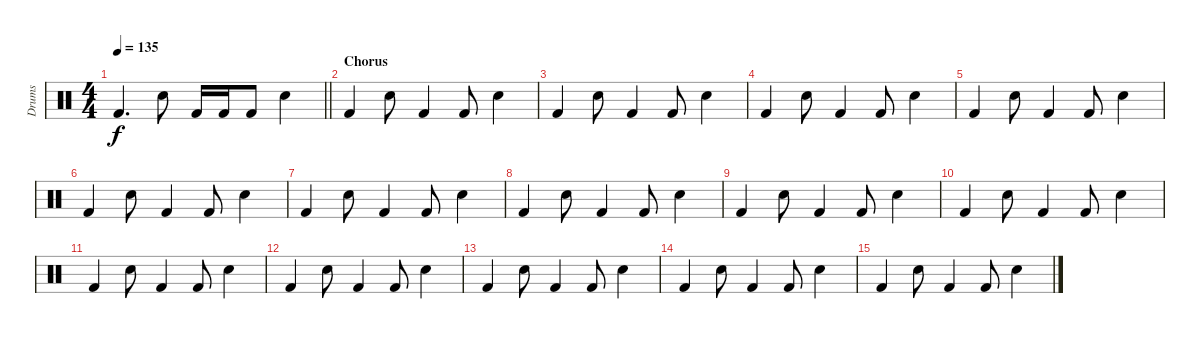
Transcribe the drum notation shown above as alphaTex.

\track ("Drums" "Drums") {instrument percussion}
\staff {score}
\articulation defaults
\ts (4 4)
\tempo 135
\clef neutral
\barLineRight lightlight
\ks c "Kick (hit) 2".4{d dy f} "Electric Snare (hit)".8 "Kick (hit) 2".16 "Kick (hit) 2".16 "Kick (hit) 2".8 "Electric Snare (hit)".4
|
\section ("" "Chorus")
"Kick (hit) 2".4 "Electric Snare (hit)".8 "Kick (hit) 2".4 "Kick (hit) 2".8 "Electric Snare (hit)".4 |
"Kick (hit) 2".4 "Electric Snare (hit)".8 "Kick (hit) 2".4 "Kick (hit) 2".8 "Electric Snare (hit)".4 |
"Kick (hit) 2".4 "Electric Snare (hit)".8 "Kick (hit) 2".4 "Kick (hit) 2".8 "Electric Snare (hit)".4 |
"Kick (hit) 2".4 "Electric Snare (hit)".8 "Kick (hit) 2".4 "Kick (hit) 2".8 "Electric Snare (hit)".4 |
"Kick (hit) 2".4 "Electric Snare (hit)".8 "Kick (hit) 2".4 "Kick (hit) 2".8 "Electric Snare (hit)".4 |
"Kick (hit) 2".4 "Electric Snare (hit)".8 "Kick (hit) 2".4 "Kick (hit) 2".8 "Electric Snare (hit)".4 |
"Kick (hit) 2".4 "Electric Snare (hit)".8 "Kick (hit) 2".4 "Kick (hit) 2".8 "Electric Snare (hit)".4 |
"Kick (hit) 2".4 "Electric Snare (hit)".8 "Kick (hit) 2".4 "Kick (hit) 2".8 "Electric Snare (hit)".4 |
"Kick (hit) 2".4 "Electric Snare (hit)".8 "Kick (hit) 2".4 "Kick (hit) 2".8 "Electric Snare (hit)".4 |
"Kick (hit) 2".4 "Electric Snare (hit)".8 "Kick (hit) 2".4 "Kick (hit) 2".8 "Electric Snare (hit)".4 |
"Kick (hit) 2".4 "Electric Snare (hit)".8 "Kick (hit) 2".4 "Kick (hit) 2".8 "Electric Snare (hit)".4 |
"Kick (hit) 2".4 "Electric Snare (hit)".8 "Kick (hit) 2".4 "Kick (hit) 2".8 "Electric Snare (hit)".4 |
"Kick (hit) 2".4 "Electric Snare (hit)".8 "Kick (hit) 2".4 "Kick (hit) 2".8 "Electric Snare (hit)".4 |
"Kick (hit) 2".4 "Electric Snare (hit)".8 "Kick (hit) 2".4 "Kick (hit) 2".8 "Electric Snare (hit)".4
